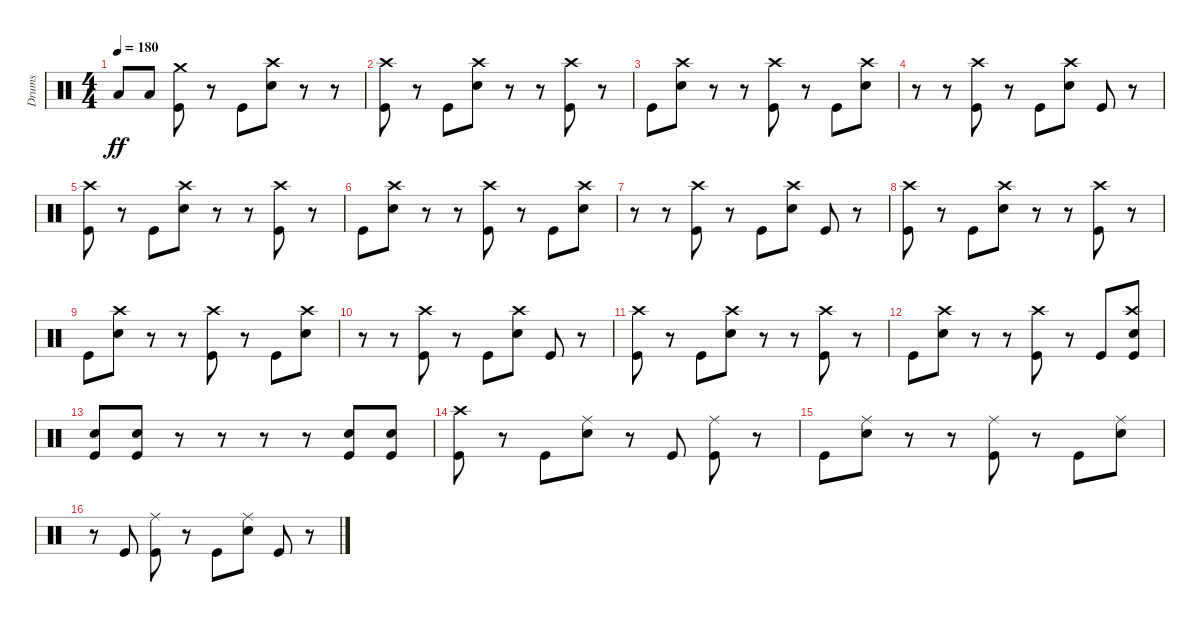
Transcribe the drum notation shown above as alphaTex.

\track ("Drums" "Drums") {instrument percussion}
\staff {score}
\articulation defaults
\ts (4 4)
\tempo 180
\clef neutral
\ks c "Low Floor Tom (hit)".8{dy ff} "Low Floor Tom (hit)".8
("Crash medium (hit)" "Kick (hit)").8 r.8 "Kick (hit)".8 ("Crash high (hit)" "Snare (hit) 2").8 r.8 r.8 |
("Crash high (hit)" "Kick (hit)").8 r.8 "Kick (hit)".8 ("Crash high (hit)" "Snare (hit) 2").8 r.8 r.8 ("Crash high (hit)" "Kick (hit)").8 r.8 |
"Kick (hit)".8 ("Crash high (hit)" "Snare (hit) 2").8 r.8 r.8 ("Crash high (hit)" "Kick (hit)").8 r.8 "Kick (hit)".8 ("Crash high (hit)" "Snare (hit) 2").8 |
r.8 r.8 ("Crash high (hit)" "Kick (hit)").8 r.8 "Kick (hit)".8 ("Crash high (hit)" "Snare (hit) 2").8 "Kick (hit)".8 r.8 |
("Crash high (hit)" "Kick (hit)").8 r.8 "Kick (hit)".8 ("Crash high (hit)" "Snare (hit) 2").8 r.8 r.8 ("Crash high (hit)" "Kick (hit)").8 r.8 |
"Kick (hit)".8 ("Crash high (hit)" "Snare (hit) 2").8 r.8 r.8 ("Crash high (hit)" "Kick (hit)").8 r.8 "Kick (hit)".8 ("Crash high (hit)" "Snare (hit) 2").8 |
r.8 r.8 ("Crash high (hit)" "Kick (hit)").8 r.8 "Kick (hit)".8 ("Crash high (hit)" "Snare (hit) 2").8 "Kick (hit)".8 r.8 |
("Crash high (hit)" "Kick (hit)").8 r.8 "Kick (hit)".8 ("Crash high (hit)" "Snare (hit) 2").8 r.8 r.8 ("Crash high (hit)" "Kick (hit)").8 r.8 |
"Kick (hit)".8 ("Crash high (hit)" "Snare (hit) 2").8 r.8 r.8 ("Crash high (hit)" "Kick (hit)").8 r.8 "Kick (hit)".8 ("Crash high (hit)" "Snare (hit) 2").8 |
r.8 r.8 ("Crash high (hit)" "Kick (hit)").8 r.8 "Kick (hit)".8 ("Crash high (hit)" "Snare (hit) 2").8 "Kick (hit)".8 r.8 |
("Crash high (hit)" "Kick (hit)").8 r.8 "Kick (hit)".8 ("Crash high (hit)" "Snare (hit) 2").8 r.8 r.8 ("Crash high (hit)" "Kick (hit)").8 r.8 |
"Kick (hit)".8 ("Crash high (hit)" "Snare (hit) 2").8 r.8 r.8 ("Crash high (hit)" "Kick (hit)").8 r.8 "Kick (hit)".8 ("Crash high (hit)" "Snare (hit) 2" "Kick (hit)").8 |
("Snare (hit) 2" "Kick (hit)").8 ("Snare (hit) 2" "Kick (hit)").8 r.8 r.8 r.8 r.8 ("Snare (hit) 2" "Kick (hit)").8 ("Snare (hit) 2" "Kick (hit)").8 |
("Crash high (hit)" "Kick (hit)").8 r.8 "Kick (hit)".8 ("Ride (middle)" "Snare (hit) 2").8 r.8 "Kick (hit)".8 ("Ride (middle)" "Kick (hit)").8 r.8 |
"Kick (hit)".8 ("Ride (middle)" "Snare (hit) 2").8 r.8 r.8 ("Ride (middle)" "Kick (hit)").8 r.8 "Kick (hit)".8 ("Ride (middle)" "Snare (hit) 2").8 |
r.8 "Kick (hit)".8 ("Ride (middle)" "Kick (hit)").8 r.8 "Kick (hit)".8 ("Ride (middle)" "Snare (hit) 2").8 "Kick (hit)".8 r.8
